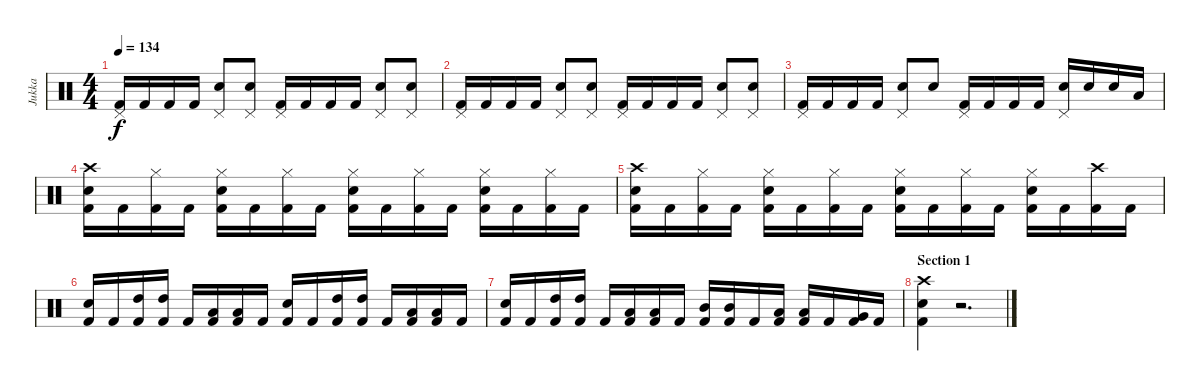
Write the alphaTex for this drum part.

\track ("Jukka" "Jukka") {instrument percussion}
\staff {score}
\articulation defaults
\ts (4 4)
\tempo 134
\clef neutral
\ks c
("Pedal Hi-Hat (hit)" "Kick (hit) 2").16{dy f} "Kick (hit) 2".16 "Kick (hit) 2".16 "Kick (hit) 2".16 ("Pedal Hi-Hat (hit)" "Electric Snare (hit)").8 ("Pedal Hi-Hat (hit)" "Electric Snare (hit)").8 ("Pedal Hi-Hat (hit)" "Kick (hit) 2").16 "Kick (hit) 2".16 "Kick (hit) 2".16 "Kick (hit) 2".16 ("Pedal Hi-Hat (hit)" "Electric Snare (hit)").8 ("Pedal Hi-Hat (hit)" "Electric Snare (hit)").8 |
("Pedal Hi-Hat (hit)" "Kick (hit) 2").16 "Kick (hit) 2".16 "Kick (hit) 2".16 "Kick (hit) 2".16 ("Pedal Hi-Hat (hit)" "Electric Snare (hit)").8 ("Pedal Hi-Hat (hit)" "Electric Snare (hit)").8 ("Pedal Hi-Hat (hit)" "Kick (hit) 2").16 "Kick (hit) 2".16 "Kick (hit) 2".16 "Kick (hit) 2".16 ("Pedal Hi-Hat (hit)" "Electric Snare (hit)").8 ("Pedal Hi-Hat (hit)" "Electric Snare (hit)").8 |
("Pedal Hi-Hat (hit)" "Kick (hit) 2").16 "Kick (hit) 2".16 "Kick (hit) 2".16 "Kick (hit) 2".16 ("Pedal Hi-Hat (hit)" "Electric Snare (hit)").8 "Electric Snare (hit)".8 ("Pedal Hi-Hat (hit)" "Kick (hit) 2").16 "Kick (hit) 2".16 "Kick (hit) 2".16 "Kick (hit) 2".16 ("Pedal Hi-Hat (hit)" "Electric Snare (hit)").16 "Electric Snare (hit)".16 "Electric Snare (hit)".16 "Low Tom (hit)".16 |
("Crash high (hit)" "Electric Snare (hit)" "Kick (hit) 2").16 "Kick (hit) 2".16 ("Hi-Hat (closed)" "Kick (hit) 2").16 "Kick (hit) 2".16 ("Hi-Hat (closed)" "Electric Snare (hit)" "Kick (hit) 2").16 "Kick (hit) 2".16 ("Hi-Hat (closed)" "Kick (hit) 2").16 "Kick (hit) 2".16 ("Hi-Hat (closed)" "Electric Snare (hit)" "Kick (hit) 2").16 "Kick (hit) 2".16 ("Hi-Hat (closed)" "Kick (hit) 2").16 "Kick (hit) 2".16 ("Hi-Hat (closed)" "Electric Snare (hit)" "Kick (hit) 2").16 "Kick (hit) 2".16 ("Hi-Hat (closed)" "Kick (hit) 2").16 "Kick (hit) 2".16 |
("Crash high (hit)" "Electric Snare (hit)" "Kick (hit) 2").16 "Kick (hit) 2".16 ("Hi-Hat (closed)" "Kick (hit) 2").16 "Kick (hit) 2".16 ("Hi-Hat (closed)" "Electric Snare (hit)" "Kick (hit) 2").16 "Kick (hit) 2".16 ("Hi-Hat (closed)" "Kick (hit) 2").16 "Kick (hit) 2".16 ("Hi-Hat (closed)" "Electric Snare (hit)" "Kick (hit) 2").16 "Kick (hit) 2".16 ("Hi-Hat (closed)" "Kick (hit) 2").16 "Kick (hit) 2".16 ("Hi-Hat (closed)" "Electric Snare (hit)" "Kick (hit) 2").16 "Kick (hit) 2".16 ("Crash high (hit)" "Kick (hit) 2").16 "Kick (hit) 2".16 |
("Electric Snare (hit)" "Kick (hit) 2").16 "Kick (hit) 2".16 ("High Tom (hit)" "Kick (hit) 2").16 ("High Tom (hit)" "Kick (hit) 2").16 "Kick (hit) 2".16 ("Low Tom (hit)" "Kick (hit) 2").16 ("Low Tom (hit)" "Kick (hit) 2").16 "Kick (hit) 2".16 ("Electric Snare (hit)" "Kick (hit) 2").16 "Kick (hit) 2".16 ("High Tom (hit)" "Kick (hit) 2").16 ("High Tom (hit)" "Kick (hit) 2").16 "Kick (hit) 2".16 ("Low Tom (hit)" "Kick (hit) 2").16 ("Low Tom (hit)" "Kick (hit) 2").16 "Kick (hit) 2".16 |
("Electric Snare (hit)" "Kick (hit) 2").16 "Kick (hit) 2".16 ("High Tom (hit)" "Kick (hit) 2").16 ("High Tom (hit)" "Kick (hit) 2").16 "Kick (hit) 2".16 ("Low Tom (hit)" "Kick (hit) 2").16 ("Low Tom (hit)" "Kick (hit) 2").16 "Kick (hit) 2".16 ("Mid Tom (hit)" "Kick (hit) 2").16 ("Mid Tom (hit)" "Kick (hit) 2").16 "Kick (hit) 2".16 ("Low Tom (hit)" "Kick (hit) 2").16 ("Low Tom (hit)" "Kick (hit) 2").16 "Kick (hit) 2".16 ("Very Low Tom (hit)" "Kick (hit) 2").16 "Kick (hit) 2".16 |
\section ("" "Section 1")
("Crash high (hit)" "Electric Snare (hit)" "Kick (hit) 2").4 r.2{d}
